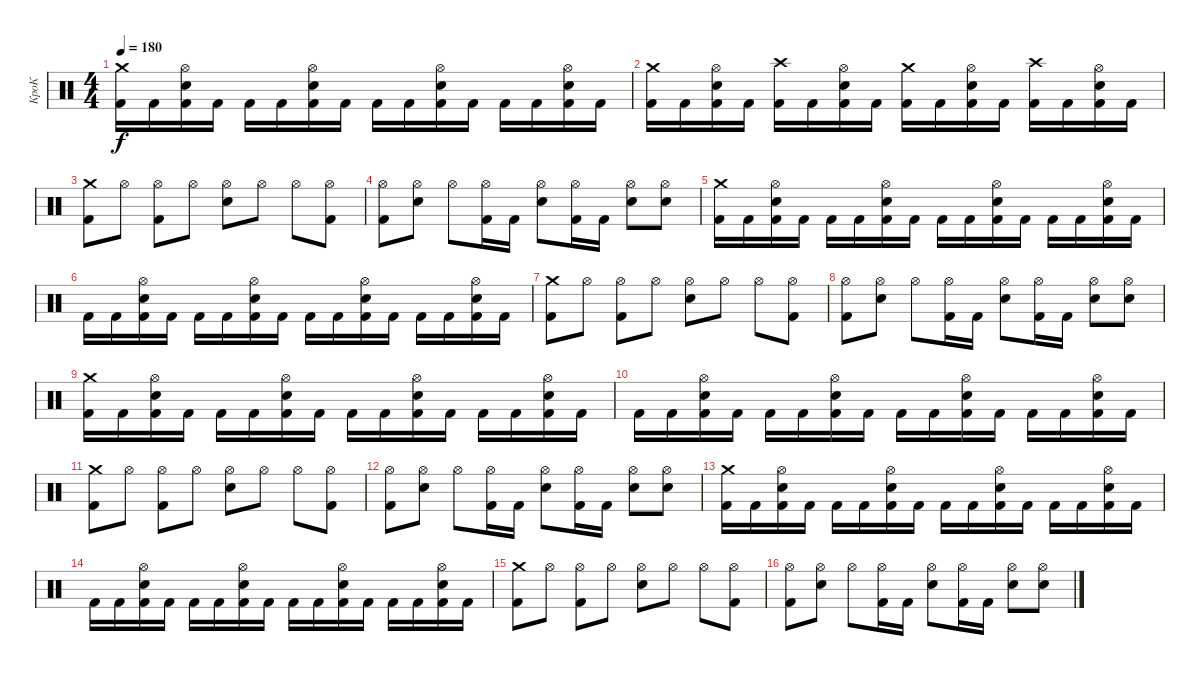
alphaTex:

\track ("КроК" "КроК") {instrument percussion}
\staff {score}
\articulation defaults
\ts (4 4)
\tempo 180
\clef neutral
\ks c
("Kick (hit) 2" "Crash medium (hit)").16{dy f} "Kick (hit) 2".16 ("Kick (hit) 2" "Electric Snare (hit)" "Hi-Hat (open)").16 "Kick (hit) 2".16 "Kick (hit) 2".16 "Kick (hit) 2".16 ("Kick (hit) 2" "Electric Snare (hit)" "Hi-Hat (open)").16 "Kick (hit) 2".16 "Kick (hit) 2".16 "Kick (hit) 2".16 ("Kick (hit) 2" "Electric Snare (hit)" "Hi-Hat (open)").16 "Kick (hit) 2".16 "Kick (hit) 2".16 "Kick (hit) 2".16 ("Kick (hit) 2" "Electric Snare (hit)" "Hi-Hat (open)").16 "Kick (hit) 2".16 |
("Kick (hit) 2" "Crash medium (hit)").16 "Kick (hit) 2".16 ("Kick (hit) 2" "Electric Snare (hit)" "Hi-Hat (open)").16 "Kick (hit) 2".16 ("Kick (hit) 2" "Crash high (hit)").16 "Kick (hit) 2".16 ("Kick (hit) 2" "Electric Snare (hit)" "Hi-Hat (open)").16 "Kick (hit) 2".16 ("Kick (hit) 2" "Crash medium (hit)").16 "Kick (hit) 2".16 ("Kick (hit) 2" "Electric Snare (hit)" "Hi-Hat (open)").16 "Kick (hit) 2".16 ("Kick (hit) 2" "Crash high (hit)").16 "Kick (hit) 2".16 ("Kick (hit) 2" "Electric Snare (hit)" "Hi-Hat (open)").16 "Kick (hit) 2".16 |
("Kick (hit) 2" "Crash medium (hit)").8 "Hi-Hat (open)".8 ("Kick (hit) 2" "Hi-Hat (open)").8 "Hi-Hat (open)".8 ("Electric Snare (hit)" "Hi-Hat (open)").8 "Hi-Hat (open)".8 "Hi-Hat (open)".8 ("Kick (hit) 2" "Hi-Hat (open)").8 |
("Kick (hit) 2" "Hi-Hat (open)").8 ("Electric Snare (hit)" "Hi-Hat (open)").8 "Hi-Hat (open)".8 ("Kick (hit) 2" "Hi-Hat (open)").16 "Kick (hit) 2".16 ("Electric Snare (hit)" "Hi-Hat (open)").8 ("Kick (hit) 2" "Hi-Hat (open)").16 "Kick (hit) 2".16 ("Electric Snare (hit)" "Hi-Hat (open)").8 ("Electric Snare (hit)" "Hi-Hat (open)").8 |
("Kick (hit) 2" "Crash medium (hit)").16 "Kick (hit) 2".16 ("Kick (hit) 2" "Electric Snare (hit)" "Hi-Hat (open)").16 "Kick (hit) 2".16 "Kick (hit) 2".16 "Kick (hit) 2".16 ("Kick (hit) 2" "Electric Snare (hit)" "Hi-Hat (open)").16 "Kick (hit) 2".16 "Kick (hit) 2".16 "Kick (hit) 2".16 ("Kick (hit) 2" "Electric Snare (hit)" "Hi-Hat (open)").16 "Kick (hit) 2".16 "Kick (hit) 2".16 "Kick (hit) 2".16 ("Kick (hit) 2" "Electric Snare (hit)" "Hi-Hat (open)").16 "Kick (hit) 2".16 |
"Kick (hit) 2".16 "Kick (hit) 2".16 ("Kick (hit) 2" "Electric Snare (hit)" "Hi-Hat (open)").16 "Kick (hit) 2".16 "Kick (hit) 2".16 "Kick (hit) 2".16 ("Kick (hit) 2" "Electric Snare (hit)" "Hi-Hat (open)").16 "Kick (hit) 2".16 "Kick (hit) 2".16 "Kick (hit) 2".16 ("Kick (hit) 2" "Electric Snare (hit)" "Hi-Hat (open)").16 "Kick (hit) 2".16 "Kick (hit) 2".16 "Kick (hit) 2".16 ("Kick (hit) 2" "Electric Snare (hit)" "Hi-Hat (open)").16 "Kick (hit) 2".16 |
("Kick (hit) 2" "Crash medium (hit)").8 "Hi-Hat (open)".8 ("Kick (hit) 2" "Hi-Hat (open)").8 "Hi-Hat (open)".8 ("Electric Snare (hit)" "Hi-Hat (open)").8 "Hi-Hat (open)".8 "Hi-Hat (open)".8 ("Kick (hit) 2" "Hi-Hat (open)").8 |
("Kick (hit) 2" "Hi-Hat (open)").8 ("Electric Snare (hit)" "Hi-Hat (open)").8 "Hi-Hat (open)".8 ("Kick (hit) 2" "Hi-Hat (open)").16 "Kick (hit) 2".16 ("Electric Snare (hit)" "Hi-Hat (open)").8 ("Kick (hit) 2" "Hi-Hat (open)").16 "Kick (hit) 2".16 ("Electric Snare (hit)" "Hi-Hat (open)").8 ("Electric Snare (hit)" "Hi-Hat (open)").8 |
("Kick (hit) 2" "Crash medium (hit)").16 "Kick (hit) 2".16 ("Kick (hit) 2" "Electric Snare (hit)" "Hi-Hat (open)").16 "Kick (hit) 2".16 "Kick (hit) 2".16 "Kick (hit) 2".16 ("Kick (hit) 2" "Electric Snare (hit)" "Hi-Hat (open)").16 "Kick (hit) 2".16 "Kick (hit) 2".16 "Kick (hit) 2".16 ("Kick (hit) 2" "Electric Snare (hit)" "Hi-Hat (open)").16 "Kick (hit) 2".16 "Kick (hit) 2".16 "Kick (hit) 2".16 ("Kick (hit) 2" "Electric Snare (hit)" "Hi-Hat (open)").16 "Kick (hit) 2".16 |
"Kick (hit) 2".16 "Kick (hit) 2".16 ("Kick (hit) 2" "Electric Snare (hit)" "Hi-Hat (open)").16 "Kick (hit) 2".16 "Kick (hit) 2".16 "Kick (hit) 2".16 ("Kick (hit) 2" "Electric Snare (hit)" "Hi-Hat (open)").16 "Kick (hit) 2".16 "Kick (hit) 2".16 "Kick (hit) 2".16 ("Kick (hit) 2" "Electric Snare (hit)" "Hi-Hat (open)").16 "Kick (hit) 2".16 "Kick (hit) 2".16 "Kick (hit) 2".16 ("Kick (hit) 2" "Electric Snare (hit)" "Hi-Hat (open)").16 "Kick (hit) 2".16 |
("Kick (hit) 2" "Crash medium (hit)").8 "Hi-Hat (open)".8 ("Kick (hit) 2" "Hi-Hat (open)").8 "Hi-Hat (open)".8 ("Electric Snare (hit)" "Hi-Hat (open)").8 "Hi-Hat (open)".8 "Hi-Hat (open)".8 ("Kick (hit) 2" "Hi-Hat (open)").8 |
("Kick (hit) 2" "Hi-Hat (open)").8 ("Electric Snare (hit)" "Hi-Hat (open)").8 "Hi-Hat (open)".8 ("Kick (hit) 2" "Hi-Hat (open)").16 "Kick (hit) 2".16 ("Electric Snare (hit)" "Hi-Hat (open)").8 ("Kick (hit) 2" "Hi-Hat (open)").16 "Kick (hit) 2".16 ("Electric Snare (hit)" "Hi-Hat (open)").8 ("Electric Snare (hit)" "Hi-Hat (open)").8 |
("Kick (hit) 2" "Crash medium (hit)").16 "Kick (hit) 2".16 ("Kick (hit) 2" "Electric Snare (hit)" "Hi-Hat (open)").16 "Kick (hit) 2".16 "Kick (hit) 2".16 "Kick (hit) 2".16 ("Kick (hit) 2" "Electric Snare (hit)" "Hi-Hat (open)").16 "Kick (hit) 2".16 "Kick (hit) 2".16 "Kick (hit) 2".16 ("Kick (hit) 2" "Electric Snare (hit)" "Hi-Hat (open)").16 "Kick (hit) 2".16 "Kick (hit) 2".16 "Kick (hit) 2".16 ("Kick (hit) 2" "Electric Snare (hit)" "Hi-Hat (open)").16 "Kick (hit) 2".16 |
"Kick (hit) 2".16 "Kick (hit) 2".16 ("Kick (hit) 2" "Electric Snare (hit)" "Hi-Hat (open)").16 "Kick (hit) 2".16 "Kick (hit) 2".16 "Kick (hit) 2".16 ("Kick (hit) 2" "Electric Snare (hit)" "Hi-Hat (open)").16 "Kick (hit) 2".16 "Kick (hit) 2".16 "Kick (hit) 2".16 ("Kick (hit) 2" "Electric Snare (hit)" "Hi-Hat (open)").16 "Kick (hit) 2".16 "Kick (hit) 2".16 "Kick (hit) 2".16 ("Kick (hit) 2" "Electric Snare (hit)" "Hi-Hat (open)").16 "Kick (hit) 2".16 |
("Kick (hit) 2" "Crash medium (hit)").8 "Hi-Hat (open)".8 ("Kick (hit) 2" "Hi-Hat (open)").8 "Hi-Hat (open)".8 ("Electric Snare (hit)" "Hi-Hat (open)").8 "Hi-Hat (open)".8 "Hi-Hat (open)".8 ("Kick (hit) 2" "Hi-Hat (open)").8 |
("Kick (hit) 2" "Hi-Hat (open)").8 ("Electric Snare (hit)" "Hi-Hat (open)").8 "Hi-Hat (open)".8 ("Kick (hit) 2" "Hi-Hat (open)").16 "Kick (hit) 2".16 ("Electric Snare (hit)" "Hi-Hat (open)").8 ("Kick (hit) 2" "Hi-Hat (open)").16 "Kick (hit) 2".16 ("Electric Snare (hit)" "Hi-Hat (open)").8 ("Electric Snare (hit)" "Hi-Hat (open)").8
